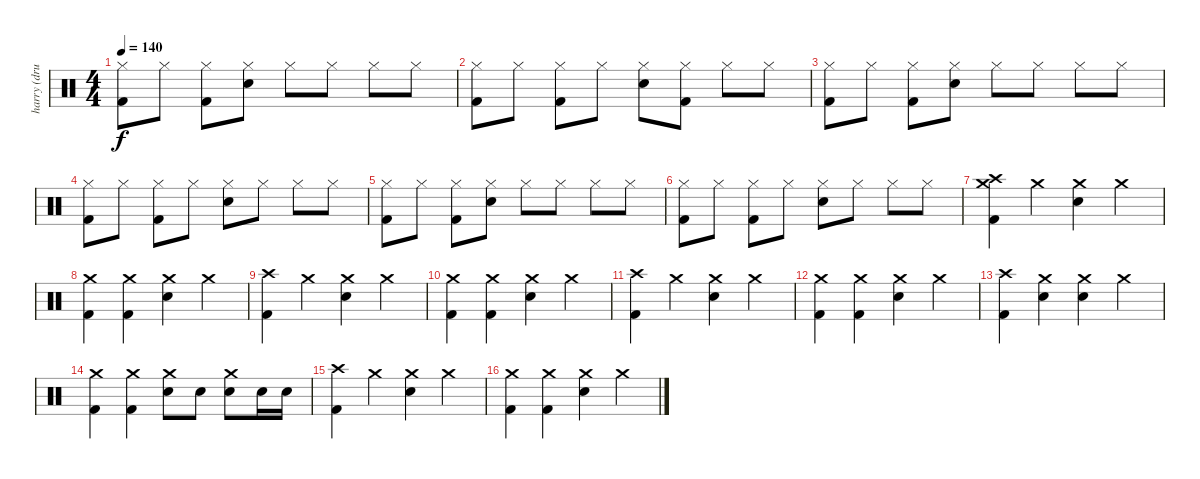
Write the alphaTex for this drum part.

\track ("harry (drum)" "harry (dru") {instrument percussion}
\staff {score}
\articulation defaults
\ts (4 4)
\tempo 140
\clef neutral
\ks c
("Hi-Hat (closed)" "Kick (hit) 2").8{dy f} "Hi-Hat (closed)".8 ("Hi-Hat (closed)" "Kick (hit) 2").8 ("Hi-Hat (closed)" "Snare (hit) 2").8 "Hi-Hat (closed)".8 "Hi-Hat (closed)".8 "Hi-Hat (closed)".8 "Hi-Hat (closed)".8 |
("Hi-Hat (closed)" "Kick (hit) 2").8 "Hi-Hat (closed)".8 ("Hi-Hat (closed)" "Kick (hit) 2").8 "Hi-Hat (closed)".8 ("Hi-Hat (closed)" "Snare (hit) 2").8 ("Hi-Hat (closed)" "Kick (hit) 2").8 "Hi-Hat (closed)".8 "Hi-Hat (closed)".8 |
("Hi-Hat (closed)" "Kick (hit) 2").8 "Hi-Hat (closed)".8 ("Hi-Hat (closed)" "Kick (hit) 2").8 ("Hi-Hat (closed)" "Snare (hit) 2").8 "Hi-Hat (closed)".8 "Hi-Hat (closed)".8 "Hi-Hat (closed)".8 "Hi-Hat (closed)".8 |
("Hi-Hat (closed)" "Kick (hit) 2").8 "Hi-Hat (closed)".8 ("Hi-Hat (closed)" "Kick (hit) 2").8 "Hi-Hat (closed)".8 ("Hi-Hat (closed)" "Snare (hit) 2").8 "Hi-Hat (closed)".8 "Hi-Hat (closed)".8 "Hi-Hat (closed)".8 |
("Hi-Hat (closed)" "Kick (hit) 2").8 "Hi-Hat (closed)".8 ("Hi-Hat (closed)" "Kick (hit) 2").8 ("Hi-Hat (closed)" "Snare (hit) 2").8 "Hi-Hat (closed)".8 "Hi-Hat (closed)".8 "Hi-Hat (closed)".8 "Hi-Hat (closed)".8 |
("Hi-Hat (closed)" "Kick (hit) 2").8 "Hi-Hat (closed)".8 ("Hi-Hat (closed)" "Kick (hit) 2").8 "Hi-Hat (closed)".8 ("Hi-Hat (closed)" "Snare (hit) 2").8 "Hi-Hat (closed)".8 "Hi-Hat (closed)".8 "Hi-Hat (closed)".8 |
("Kick (hit) 2" "Crash high (hit)" "Crash medium (hit)").4 "Crash medium (hit)".4 ("Snare (hit) 2" "Crash medium (hit)").4 "Crash medium (hit)".4 |
("Kick (hit) 2" "Crash medium (hit)").4 ("Kick (hit) 2" "Crash medium (hit)").4 ("Snare (hit) 2" "Crash medium (hit)").4 "Crash medium (hit)".4 |
("Kick (hit) 2" "Crash high (hit)").4 "Crash medium (hit)".4 ("Snare (hit) 2" "Crash medium (hit)").4 "Crash medium (hit)".4 |
("Kick (hit) 2" "Crash medium (hit)").4 ("Kick (hit) 2" "Crash medium (hit)").4 ("Snare (hit) 2" "Crash medium (hit)").4 "Crash medium (hit)".4 |
("Kick (hit) 2" "Crash high (hit)").4 "Crash medium (hit)".4 ("Snare (hit) 2" "Crash medium (hit)").4 "Crash medium (hit)".4 |
("Kick (hit) 2" "Crash medium (hit)").4 ("Kick (hit) 2" "Crash medium (hit)").4 ("Snare (hit) 2" "Crash medium (hit)").4 "Crash medium (hit)".4 |
("Kick (hit) 2" "Crash high (hit)").4 ("Snare (hit) 2" "Crash medium (hit)").4 ("Snare (hit) 2" "Crash medium (hit)").4 "Crash medium (hit)".4 |
("Kick (hit) 2" "Crash medium (hit)").4 ("Kick (hit) 2" "Crash medium (hit)").4 ("Snare (hit) 2" "Crash medium (hit)").8 "Snare (hit) 2".8 ("Snare (hit) 2" "Crash medium (hit)").8 "Snare (hit) 2".16 "Snare (hit) 2".16 |
("Kick (hit) 2" "Crash high (hit)").4 "Crash medium (hit)".4 ("Snare (hit) 2" "Crash medium (hit)").4 "Crash medium (hit)".4 |
("Kick (hit) 2" "Crash medium (hit)").4 ("Kick (hit) 2" "Crash medium (hit)").4 ("Snare (hit) 2" "Crash medium (hit)").4 "Crash medium (hit)".4
